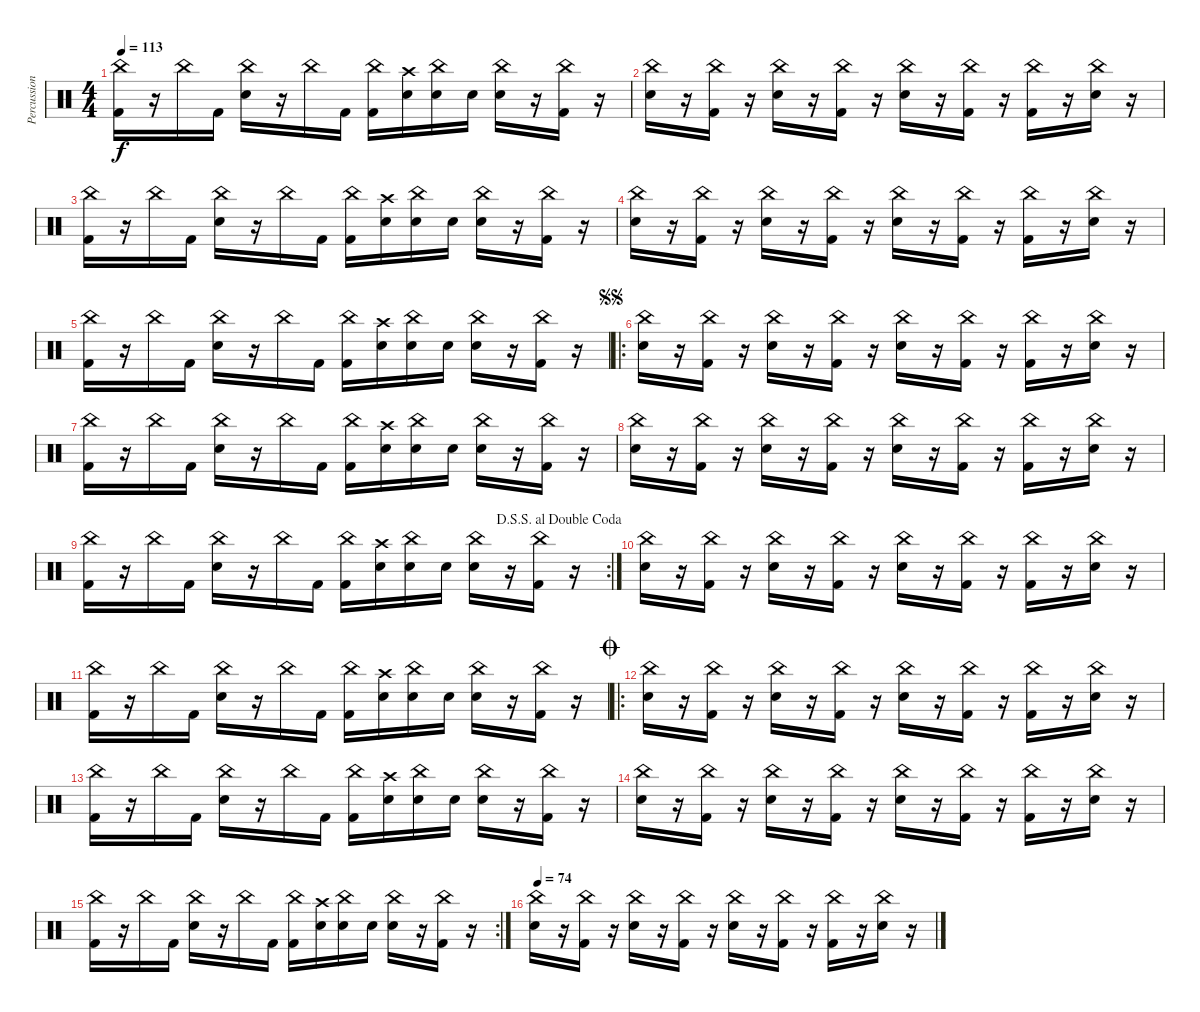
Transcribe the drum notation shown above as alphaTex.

\track ("Percussion" "Percussion") {instrument percussion}
\staff {score}
\articulation defaults
\ts (4 4)
\tempo 113
\clef neutral
\ks c
("Kick (hit) 2" "China (hit)").16{dy f} r.16 "China (hit)".16 "Kick (hit) 2".16 ("Electric Snare (hit)" "China (hit)").16 r.16 "China (hit)".16 "Kick (hit) 2".16 ("Kick (hit) 2" "China (hit)").16 ("Electric Snare (hit)" "Crash high (hit)").16 ("Electric Snare (hit)" "China (hit)").16 "Electric Snare (hit)".16 ("Electric Snare (hit)" "China (hit)").16 r.16 ("Kick (hit) 2" "China (hit)").16 r.16 |
("Electric Snare (hit)" "China (hit)").16 r.16 ("Kick (hit) 2" "China (hit)").16 r.16 ("Electric Snare (hit)" "China (hit)").16 r.16 ("Kick (hit) 2" "China (hit)").16 r.16 ("Electric Snare (hit)" "China (hit)").16 r.16 ("Kick (hit) 2" "China (hit)").16 r.16 ("Kick (hit) 2" "China (hit)").16 r.16 ("Electric Snare (hit)" "China (hit)").16 r.16 |
("Kick (hit) 2" "China (hit)").16 r.16 "China (hit)".16 "Kick (hit) 2".16 ("Electric Snare (hit)" "China (hit)").16 r.16 "China (hit)".16 "Kick (hit) 2".16 ("Kick (hit) 2" "China (hit)").16 ("Electric Snare (hit)" "Crash high (hit)").16 ("Electric Snare (hit)" "China (hit)").16 "Electric Snare (hit)".16 ("Electric Snare (hit)" "China (hit)").16 r.16 ("Kick (hit) 2" "China (hit)").16 r.16 |
("Electric Snare (hit)" "China (hit)").16 r.16 ("Kick (hit) 2" "China (hit)").16 r.16 ("Electric Snare (hit)" "China (hit)").16 r.16 ("Kick (hit) 2" "China (hit)").16 r.16 ("Electric Snare (hit)" "China (hit)").16 r.16 ("Kick (hit) 2" "China (hit)").16 r.16 ("Kick (hit) 2" "China (hit)").16 r.16 ("Electric Snare (hit)" "China (hit)").16 r.16 |
("Kick (hit) 2" "China (hit)").16 r.16 "China (hit)".16 "Kick (hit) 2".16 ("Electric Snare (hit)" "China (hit)").16 r.16 "China (hit)".16 "Kick (hit) 2".16 ("Kick (hit) 2" "China (hit)").16 ("Electric Snare (hit)" "Crash high (hit)").16 ("Electric Snare (hit)" "China (hit)").16 "Electric Snare (hit)".16 ("Electric Snare (hit)" "China (hit)").16 r.16 ("Kick (hit) 2" "China (hit)").16 r.16 |
\ro
\jump segnosegno
("Electric Snare (hit)" "China (hit)").16 r.16 ("Kick (hit) 2" "China (hit)").16 r.16 ("Electric Snare (hit)" "China (hit)").16 r.16 ("Kick (hit) 2" "China (hit)").16 r.16 ("Electric Snare (hit)" "China (hit)").16 r.16 ("Kick (hit) 2" "China (hit)").16 r.16 ("Kick (hit) 2" "China (hit)").16 r.16 ("Electric Snare (hit)" "China (hit)").16 r.16 |
("Kick (hit) 2" "China (hit)").16 r.16 "China (hit)".16 "Kick (hit) 2".16 ("Electric Snare (hit)" "China (hit)").16 r.16 "China (hit)".16 "Kick (hit) 2".16 ("Kick (hit) 2" "China (hit)").16 ("Electric Snare (hit)" "Crash high (hit)").16 ("Electric Snare (hit)" "China (hit)").16 "Electric Snare (hit)".16 ("Electric Snare (hit)" "China (hit)").16 r.16 ("Kick (hit) 2" "China (hit)").16 r.16 |
("Electric Snare (hit)" "China (hit)").16 r.16 ("Kick (hit) 2" "China (hit)").16 r.16 ("Electric Snare (hit)" "China (hit)").16 r.16 ("Kick (hit) 2" "China (hit)").16 r.16 ("Electric Snare (hit)" "China (hit)").16 r.16 ("Kick (hit) 2" "China (hit)").16 r.16 ("Kick (hit) 2" "China (hit)").16 r.16 ("Electric Snare (hit)" "China (hit)").16 r.16 |
\rc 2
\jump dalsegnosegnoaldoublecoda
("Kick (hit) 2" "China (hit)").16 r.16 "China (hit)".16 "Kick (hit) 2".16 ("Electric Snare (hit)" "China (hit)").16 r.16 "China (hit)".16 "Kick (hit) 2".16 ("Kick (hit) 2" "China (hit)").16 ("Electric Snare (hit)" "Crash high (hit)").16 ("Electric Snare (hit)" "China (hit)").16 "Electric Snare (hit)".16 ("Electric Snare (hit)" "China (hit)").16 r.16 ("Kick (hit) 2" "China (hit)").16 r.16 |
("Electric Snare (hit)" "China (hit)").16 r.16 ("Kick (hit) 2" "China (hit)").16 r.16 ("Electric Snare (hit)" "China (hit)").16 r.16 ("Kick (hit) 2" "China (hit)").16 r.16 ("Electric Snare (hit)" "China (hit)").16 r.16 ("Kick (hit) 2" "China (hit)").16 r.16 ("Kick (hit) 2" "China (hit)").16 r.16 ("Electric Snare (hit)" "China (hit)").16 r.16 |
("Kick (hit) 2" "China (hit)").16 r.16 "China (hit)".16 "Kick (hit) 2".16 ("Electric Snare (hit)" "China (hit)").16 r.16 "China (hit)".16 "Kick (hit) 2".16 ("Kick (hit) 2" "China (hit)").16 ("Electric Snare (hit)" "Crash high (hit)").16 ("Electric Snare (hit)" "China (hit)").16 "Electric Snare (hit)".16 ("Electric Snare (hit)" "China (hit)").16 r.16 ("Kick (hit) 2" "China (hit)").16 r.16 |
\ro
\jump coda
("Electric Snare (hit)" "China (hit)").16 r.16 ("Kick (hit) 2" "China (hit)").16 r.16 ("Electric Snare (hit)" "China (hit)").16 r.16 ("Kick (hit) 2" "China (hit)").16 r.16 ("Electric Snare (hit)" "China (hit)").16 r.16 ("Kick (hit) 2" "China (hit)").16 r.16 ("Kick (hit) 2" "China (hit)").16 r.16 ("Electric Snare (hit)" "China (hit)").16 r.16 |
("Kick (hit) 2" "China (hit)").16 r.16 "China (hit)".16 "Kick (hit) 2".16 ("Electric Snare (hit)" "China (hit)").16 r.16 "China (hit)".16 "Kick (hit) 2".16 ("Kick (hit) 2" "China (hit)").16 ("Electric Snare (hit)" "Crash high (hit)").16 ("Electric Snare (hit)" "China (hit)").16 "Electric Snare (hit)".16 ("Electric Snare (hit)" "China (hit)").16 r.16 ("Kick (hit) 2" "China (hit)").16 r.16 |
("Electric Snare (hit)" "China (hit)").16 r.16 ("Kick (hit) 2" "China (hit)").16 r.16 ("Electric Snare (hit)" "China (hit)").16 r.16 ("Kick (hit) 2" "China (hit)").16 r.16 ("Electric Snare (hit)" "China (hit)").16 r.16 ("Kick (hit) 2" "China (hit)").16 r.16 ("Kick (hit) 2" "China (hit)").16 r.16 ("Electric Snare (hit)" "China (hit)").16 r.16 |
\rc 2
("Kick (hit) 2" "China (hit)").16 r.16 "China (hit)".16 "Kick (hit) 2".16 ("Electric Snare (hit)" "China (hit)").16 r.16 "China (hit)".16 "Kick (hit) 2".16 ("Kick (hit) 2" "China (hit)").16 ("Electric Snare (hit)" "Crash high (hit)").16 ("Electric Snare (hit)" "China (hit)").16 "Electric Snare (hit)".16 ("Electric Snare (hit)" "China (hit)").16 r.16 ("Kick (hit) 2" "China (hit)").16 r.16 |
\tempo 74
("Electric Snare (hit)" "China (hit)").16 r.16 ("Kick (hit) 2" "China (hit)").16 r.16 ("Electric Snare (hit)" "China (hit)").16 r.16 ("Kick (hit) 2" "China (hit)").16 r.16 ("Electric Snare (hit)" "China (hit)").16 r.16 ("Kick (hit) 2" "China (hit)").16 r.16 ("Kick (hit) 2" "China (hit)").16 r.16 ("Electric Snare (hit)" "China (hit)").16 r.16
